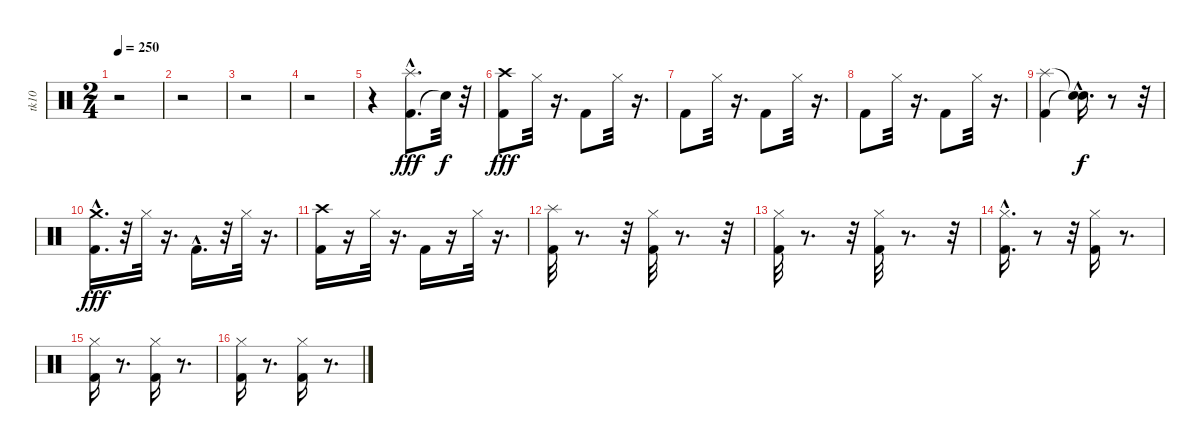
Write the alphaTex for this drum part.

\track ("tk10" "tk10") {instrument percussion}
\staff {score}
\articulation defaults
\ts (2 4)
\tempo 250
\clef neutral
\ks c
r.2{dy fff} |
r.2 |
r.2 |
r.2 |
r.4 ("Kick (hit) 2"{hac} "Splash (hit)"{hac}).8{d balance 8} "Snare (hit)"{t}.32{dy f} r.32 |
("Kick (hit) 2" "Crash high (hit)").8{dy fff} "Hi-Hat (closed)".32 r.16{d} "Kick (hit) 2".8 "Hi-Hat (closed)".32 r.16{d} |
"Kick (hit) 2".8 "Hi-Hat (closed)".32 r.16{d} "Kick (hit) 2".8 "Hi-Hat (closed)".32 r.16{d} |
"Kick (hit) 2".8 "Hi-Hat (closed)".32 r.16{d} "Kick (hit) 2".8 "Hi-Hat (closed)".32 r.16{d} |
("Splash (hit)" "Kick (hit) 2").4 ("Snare (hit)"{t} "Snare (hit)"{hac t}).16{d dy f} r.8 r.32 |
("Kick (hit) 2"{hac} "Crash medium (hit)").16{d dy fff} r.32 "Hi-Hat (closed)".32 r.16{d} "Kick (hit) 2"{hac}.16{d} r.32 "Hi-Hat (closed)".32 r.16{d} |
("Kick (hit) 2" "Crash high (hit)").16 r.16 "Hi-Hat (closed)".32 r.16{d} "Kick (hit) 2".16 r.16 "Hi-Hat (closed)".32 r.16{d} |
("Kick (hit) 2" "Splash (hit)").32 r.8{d} r.32 ("Kick (hit) 2" "Hi-Hat (closed)").32 r.8{d} r.32 |
("Hi-Hat (closed)" "Kick (hit) 2").32 r.8{d} r.32 ("Hi-Hat (closed)" "Kick (hit) 2").32 r.8{d} r.32 |
("Hi-Hat (closed)" "Kick (hit) 2"{hac}).16{d} r.8 r.32 ("Kick (hit) 2" "Hi-Hat (closed)").16 r.8{d} |
("Hi-Hat (closed)" "Kick (hit) 2").16 r.8{d} ("Kick (hit) 2" "Hi-Hat (closed)").16 r.8{d} |
("Kick (hit) 2" "Hi-Hat (closed)").16 r.8{d} ("Hi-Hat (closed)" "Kick (hit) 2").16 r.8{d}
